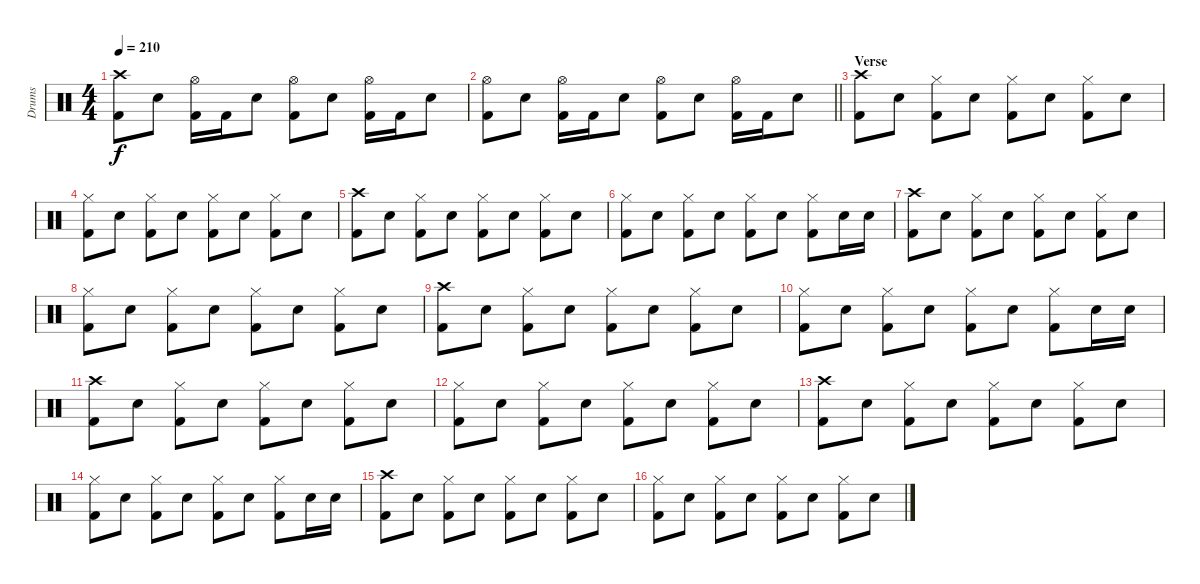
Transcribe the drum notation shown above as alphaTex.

\track ("Drums" "Drums") {instrument percussion}
\staff {score}
\articulation defaults
\ts (4 4)
\tempo 210
\clef neutral
\ks c
("Crash high (hit)" "Kick (hit) 2").8{dy f} "Snare (hit) 2".8 ("Hi-Hat (open)" "Kick (hit) 2").16 "Kick (hit) 2".16 "Snare (hit) 2".8 ("Hi-Hat (open)" "Kick (hit) 2").8 "Snare (hit) 2".8 ("Hi-Hat (open)" "Kick (hit) 2").16 "Kick (hit) 2".16 "Snare (hit) 2".8 |
\barLineRight lightlight
("Hi-Hat (open)" "Kick (hit) 2").8 "Snare (hit) 2".8 ("Hi-Hat (open)" "Kick (hit) 2").16 "Kick (hit) 2".16 "Snare (hit) 2".8 ("Hi-Hat (open)" "Kick (hit) 2").8 "Snare (hit) 2".8 ("Hi-Hat (open)" "Kick (hit) 2").16 "Kick (hit) 2".16 "Snare (hit) 2".8 |
\section ("" "Verse")
("Crash high (hit)" "Kick (hit) 2").8 "Snare (hit) 2".8 ("Hi-Hat (closed)" "Kick (hit) 2").8 "Snare (hit) 2".8 ("Hi-Hat (closed)" "Kick (hit) 2").8 "Snare (hit) 2".8 ("Hi-Hat (closed)" "Kick (hit) 2").8 "Snare (hit) 2".8 |
("Hi-Hat (closed)" "Kick (hit) 2").8 "Snare (hit) 2".8 ("Hi-Hat (closed)" "Kick (hit) 2").8 "Snare (hit) 2".8 ("Hi-Hat (closed)" "Kick (hit) 2").8 "Snare (hit) 2".8 ("Hi-Hat (closed)" "Kick (hit) 2").8 "Snare (hit) 2".8 |
("Crash high (hit)" "Kick (hit) 2").8 "Snare (hit) 2".8 ("Hi-Hat (closed)" "Kick (hit) 2").8 "Snare (hit) 2".8 ("Hi-Hat (closed)" "Kick (hit) 2").8 "Snare (hit) 2".8 ("Hi-Hat (closed)" "Kick (hit) 2").8 "Snare (hit) 2".8 |
("Hi-Hat (closed)" "Kick (hit) 2").8 "Snare (hit) 2".8 ("Hi-Hat (closed)" "Kick (hit) 2").8 "Snare (hit) 2".8 ("Hi-Hat (closed)" "Kick (hit) 2").8 "Snare (hit) 2".8 ("Hi-Hat (closed)" "Kick (hit) 2").8 "Snare (hit) 2".16 "Snare (hit) 2".16 |
("Crash high (hit)" "Kick (hit) 2").8 "Snare (hit) 2".8 ("Hi-Hat (closed)" "Kick (hit) 2").8 "Snare (hit) 2".8 ("Hi-Hat (closed)" "Kick (hit) 2").8 "Snare (hit) 2".8 ("Hi-Hat (closed)" "Kick (hit) 2").8 "Snare (hit) 2".8 |
("Hi-Hat (closed)" "Kick (hit) 2").8 "Snare (hit) 2".8 ("Hi-Hat (closed)" "Kick (hit) 2").8 "Snare (hit) 2".8 ("Hi-Hat (closed)" "Kick (hit) 2").8 "Snare (hit) 2".8 ("Hi-Hat (closed)" "Kick (hit) 2").8 "Snare (hit) 2".8 |
("Crash high (hit)" "Kick (hit) 2").8 "Snare (hit) 2".8 ("Hi-Hat (closed)" "Kick (hit) 2").8 "Snare (hit) 2".8 ("Hi-Hat (closed)" "Kick (hit) 2").8 "Snare (hit) 2".8 ("Hi-Hat (closed)" "Kick (hit) 2").8 "Snare (hit) 2".8 |
("Hi-Hat (closed)" "Kick (hit) 2").8 "Snare (hit) 2".8 ("Hi-Hat (closed)" "Kick (hit) 2").8 "Snare (hit) 2".8 ("Hi-Hat (closed)" "Kick (hit) 2").8 "Snare (hit) 2".8 ("Hi-Hat (closed)" "Kick (hit) 2").8 "Snare (hit) 2".16 "Snare (hit) 2".16 |
("Crash high (hit)" "Kick (hit) 2").8 "Snare (hit) 2".8 ("Hi-Hat (closed)" "Kick (hit) 2").8 "Snare (hit) 2".8 ("Hi-Hat (closed)" "Kick (hit) 2").8 "Snare (hit) 2".8 ("Hi-Hat (closed)" "Kick (hit) 2").8 "Snare (hit) 2".8 |
("Hi-Hat (closed)" "Kick (hit) 2").8 "Snare (hit) 2".8 ("Hi-Hat (closed)" "Kick (hit) 2").8 "Snare (hit) 2".8 ("Hi-Hat (closed)" "Kick (hit) 2").8 "Snare (hit) 2".8 ("Hi-Hat (closed)" "Kick (hit) 2").8 "Snare (hit) 2".8 |
("Crash high (hit)" "Kick (hit) 2").8 "Snare (hit) 2".8 ("Hi-Hat (closed)" "Kick (hit) 2").8 "Snare (hit) 2".8 ("Hi-Hat (closed)" "Kick (hit) 2").8 "Snare (hit) 2".8 ("Hi-Hat (closed)" "Kick (hit) 2").8 "Snare (hit) 2".8 |
("Hi-Hat (closed)" "Kick (hit) 2").8 "Snare (hit) 2".8 ("Hi-Hat (closed)" "Kick (hit) 2").8 "Snare (hit) 2".8 ("Hi-Hat (closed)" "Kick (hit) 2").8 "Snare (hit) 2".8 ("Hi-Hat (closed)" "Kick (hit) 2").8 "Snare (hit) 2".16 "Snare (hit) 2".16 |
("Crash high (hit)" "Kick (hit) 2").8 "Snare (hit) 2".8 ("Hi-Hat (closed)" "Kick (hit) 2").8 "Snare (hit) 2".8 ("Hi-Hat (closed)" "Kick (hit) 2").8 "Snare (hit) 2".8 ("Hi-Hat (closed)" "Kick (hit) 2").8 "Snare (hit) 2".8 |
("Hi-Hat (closed)" "Kick (hit) 2").8 "Snare (hit) 2".8 ("Hi-Hat (closed)" "Kick (hit) 2").8 "Snare (hit) 2".8 ("Hi-Hat (closed)" "Kick (hit) 2").8 "Snare (hit) 2".8 ("Hi-Hat (closed)" "Kick (hit) 2").8 "Snare (hit) 2".8
